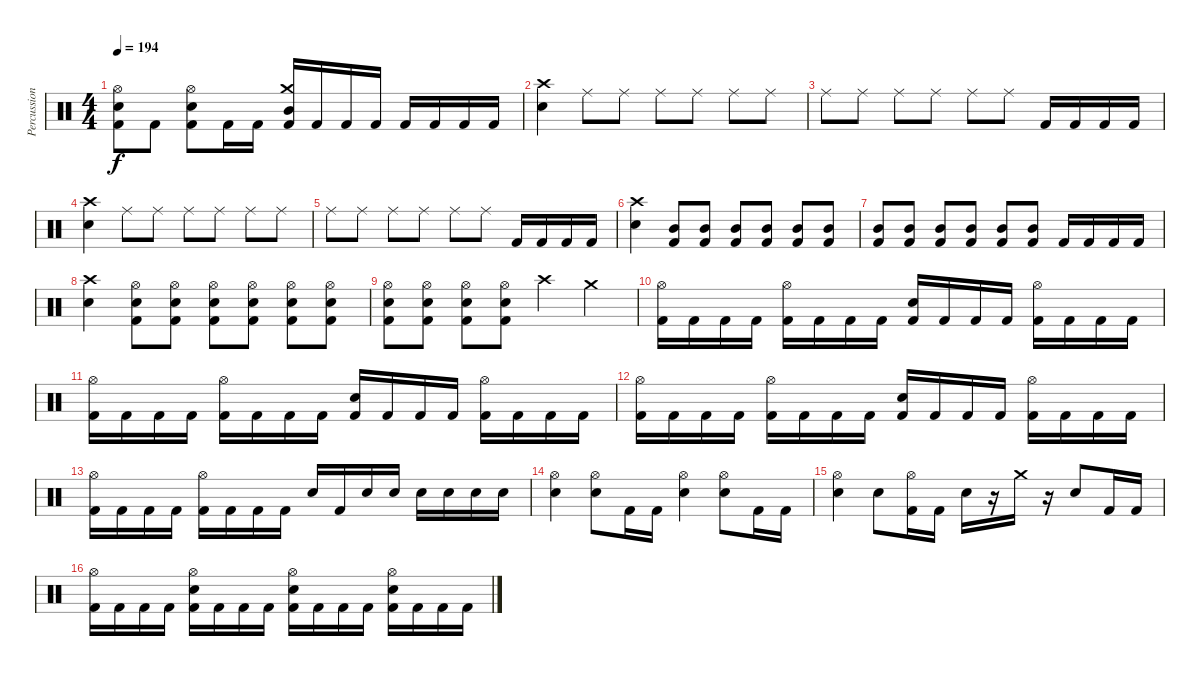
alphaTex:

\track ("Percussions" "Percussion") {instrument percussion}
\staff {score}
\articulation defaults
\ts (4 4)
\tempo 194
\clef neutral
\ks c
("Hi-Hat (open)" "Electric Snare (hit)" "Kick (hit) 2").8{dy f} "Kick (hit) 2".8 ("Hi-Hat (open)" "Electric Snare (hit)" "Kick (hit) 2").8 "Kick (hit) 2".16 "Kick (hit) 2".16 ("Crash medium (hit)" "Mid Tom (hit)" "Kick (hit) 2").16 "Kick (hit) 2".16 "Kick (hit) 2".16 "Kick (hit) 2".16 "Kick (hit) 2".16 "Kick (hit) 2".16 "Kick (hit) 2".16 "Kick (hit) 2".16 |
("Crash high (hit)" "Electric Snare (hit)").4 "Ride (middle)".8 "Ride (middle)".8 "Ride (middle)".8 "Ride (middle)".8 "Ride (middle)".8 "Ride (middle)".8 |
"Ride (middle)".8 "Ride (middle)".8 "Ride (middle)".8 "Ride (middle)".8 "Ride (middle)".8 "Ride (middle)".8 "Kick (hit) 2".16 "Kick (hit) 2".16 "Kick (hit) 2".16 "Kick (hit) 2".16 |
("Crash high (hit)" "Electric Snare (hit)").4 "Ride (middle)".8 "Ride (middle)".8 "Ride (middle)".8 "Ride (middle)".8 "Ride (middle)".8 "Ride (middle)".8 |
"Ride (middle)".8 "Ride (middle)".8 "Ride (middle)".8 "Ride (middle)".8 "Ride (middle)".8 "Ride (middle)".8 "Kick (hit) 2".16 "Kick (hit) 2".16 "Kick (hit) 2".16 "Kick (hit) 2".16 |
("Crash high (hit)" "Electric Snare (hit)").4 ("Mid Tom (hit)" "Kick (hit) 2").8 ("Mid Tom (hit)" "Kick (hit) 2").8 ("Mid Tom (hit)" "Kick (hit) 2").8 ("Mid Tom (hit)" "Kick (hit) 2").8 ("Mid Tom (hit)" "Kick (hit) 2").8 ("Mid Tom (hit)" "Kick (hit) 2").8 |
("Mid Tom (hit)" "Kick (hit) 2").8 ("Mid Tom (hit)" "Kick (hit) 2").8 ("Mid Tom (hit)" "Kick (hit) 2").8 ("Mid Tom (hit)" "Kick (hit) 2").8 ("Mid Tom (hit)" "Kick (hit) 2").8 ("Mid Tom (hit)" "Kick (hit) 2").8 "Kick (hit) 2".16 "Kick (hit) 2".16 "Kick (hit) 2".16 "Kick (hit) 2".16 |
("Crash high (hit)" "Electric Snare (hit)").4 ("Hi-Hat (open)" "Snare (hit) 2" "Kick (hit) 2").8 ("Hi-Hat (open)" "Snare (hit) 2" "Kick (hit) 2").8 ("Hi-Hat (open)" "Snare (hit) 2" "Kick (hit) 2").8 ("Hi-Hat (open)" "Snare (hit) 2" "Kick (hit) 2").8 ("Hi-Hat (open)" "Snare (hit) 2" "Kick (hit) 2").8 ("Hi-Hat (open)" "Snare (hit) 2" "Kick (hit) 2").8 |
("Hi-Hat (open)" "Snare (hit) 2" "Kick (hit) 2").8 ("Hi-Hat (open)" "Snare (hit) 2" "Kick (hit) 2").8 ("Hi-Hat (open)" "Snare (hit) 2" "Kick (hit) 2").8 ("Hi-Hat (open)" "Snare (hit) 2" "Kick (hit) 2").8 "Crash high (hit)".4 "Crash medium (hit)".4 |
("Hi-Hat (open)" "Kick (hit) 2").16 "Kick (hit) 2".16 "Kick (hit) 2".16 "Kick (hit) 2".16 ("Hi-Hat (open)" "Kick (hit) 2").16 "Kick (hit) 2".16 "Kick (hit) 2".16 "Kick (hit) 2".16 ("Electric Snare (hit)" "Kick (hit) 2").16 "Kick (hit) 2".16 "Kick (hit) 2".16 "Kick (hit) 2".16 ("Hi-Hat (open)" "Kick (hit) 2").16 "Kick (hit) 2".16 "Kick (hit) 2".16 "Kick (hit) 2".16 |
("Hi-Hat (open)" "Kick (hit) 2").16 "Kick (hit) 2".16 "Kick (hit) 2".16 "Kick (hit) 2".16 ("Hi-Hat (open)" "Kick (hit) 2").16 "Kick (hit) 2".16 "Kick (hit) 2".16 "Kick (hit) 2".16 ("Electric Snare (hit)" "Kick (hit) 2").16 "Kick (hit) 2".16 "Kick (hit) 2".16 "Kick (hit) 2".16 ("Hi-Hat (open)" "Kick (hit) 2").16 "Kick (hit) 2".16 "Kick (hit) 2".16 "Kick (hit) 2".16 |
("Hi-Hat (open)" "Kick (hit) 2").16 "Kick (hit) 2".16 "Kick (hit) 2".16 "Kick (hit) 2".16 ("Hi-Hat (open)" "Kick (hit) 2").16 "Kick (hit) 2".16 "Kick (hit) 2".16 "Kick (hit) 2".16 ("Electric Snare (hit)" "Kick (hit) 2").16 "Kick (hit) 2".16 "Kick (hit) 2".16 "Kick (hit) 2".16 ("Hi-Hat (open)" "Kick (hit) 2").16 "Kick (hit) 2".16 "Kick (hit) 2".16 "Kick (hit) 2".16 |
("Hi-Hat (open)" "Kick (hit) 2").16 "Kick (hit) 2".16 "Kick (hit) 2".16 "Kick (hit) 2".16 ("Hi-Hat (open)" "Kick (hit) 2").16 "Kick (hit) 2".16 "Kick (hit) 2".16 "Kick (hit) 2".16 "Electric Snare (hit)".16 "Kick (hit) 2".16 "Electric Snare (hit)".16 "Electric Snare (hit)".16 "Electric Snare (hit)".16 "Electric Snare (hit)".16 "Electric Snare (hit)".16 "Electric Snare (hit)".16 |
("Hi-Hat (open)" "Electric Snare (hit)").4 ("Hi-Hat (open)" "Electric Snare (hit)").8 "Kick (hit) 2".16 "Kick (hit) 2".16 ("Hi-Hat (open)" "Electric Snare (hit)").4 ("Hi-Hat (open)" "Electric Snare (hit)").8 "Kick (hit) 2".16 "Kick (hit) 2".16 |
("Hi-Hat (open)" "Electric Snare (hit)").4 "Electric Snare (hit)".8 ("Hi-Hat (open)" "Kick (hit) 2").16 "Kick (hit) 2".16 "Electric Snare (hit)".16 r.16 "Crash medium (hit)".16 r.16 "Electric Snare (hit)".8 "Kick (hit) 2".16 "Kick (hit) 2".16 |
("Hi-Hat (open)" "Kick (hit) 2").16 "Kick (hit) 2".16 "Kick (hit) 2".16 "Kick (hit) 2".16 ("Hi-Hat (open)" "Electric Snare (hit)" "Kick (hit) 2").16 "Kick (hit) 2".16 "Kick (hit) 2".16 "Kick (hit) 2".16 ("Hi-Hat (open)" "Electric Snare (hit)" "Kick (hit) 2").16 "Kick (hit) 2".16 "Kick (hit) 2".16 "Kick (hit) 2".16 ("Hi-Hat (open)" "Electric Snare (hit)" "Kick (hit) 2").16 "Kick (hit) 2".16 "Kick (hit) 2".16 "Kick (hit) 2".16
